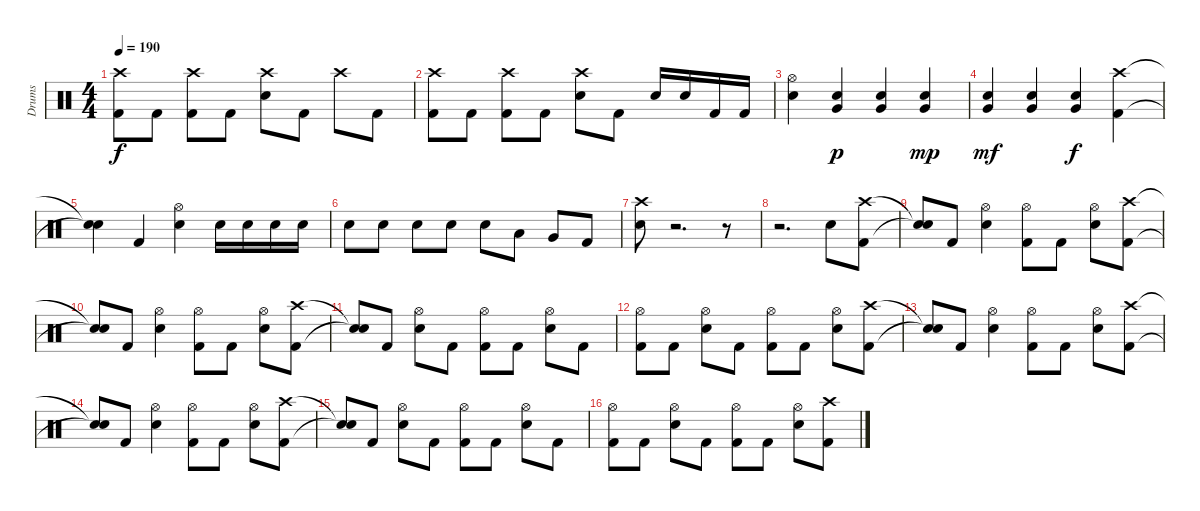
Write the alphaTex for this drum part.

\track ("Drums" "Drums") {instrument percussion}
\staff {score}
\articulation defaults
\ts (4 4)
\tempo 190
\clef neutral
\ks c
("Crash high (hit)" "Kick (hit) 2").8{dy f} "Kick (hit) 2".8 ("Crash high (hit)" "Kick (hit) 2").8 "Kick (hit) 2".8 ("Crash high (hit)" "Electric Snare (hit)").8 "Kick (hit) 2".8 "Crash high (hit)".8 "Kick (hit) 2".8 |
("Crash high (hit)" "Kick (hit) 2").8 "Kick (hit) 2".8 ("Crash high (hit)" "Kick (hit) 2").8 "Kick (hit) 2".8 ("Crash high (hit)" "Electric Snare (hit)").8 "Kick (hit) 2".8 "Electric Snare (hit)".16 "Electric Snare (hit)".16 "Kick (hit) 2".16 "Kick (hit) 2".16 |
("Hi-Hat (open)" "Electric Snare (hit)").4 ("Very Low Tom (hit)" "Electric Snare (hit)").4{dy p} ("Very Low Tom (hit)" "Electric Snare (hit)").4 ("Very Low Tom (hit)" "Electric Snare (hit)").4{dy mp} |
("Very Low Tom (hit)" "Electric Snare (hit)").4{dy mf} ("Very Low Tom (hit)" "Electric Snare (hit)").4 ("Very Low Tom (hit)" "Electric Snare (hit)").4{dy f} ("Crash high (hit)" "Kick (hit) 2").4 |
("Snare (hit)"{t} "Snare (hit)"{t}).4 "Kick (hit) 2".4 ("Hi-Hat (open)" "Electric Snare (hit)").4 "Electric Snare (hit)".16 "Electric Snare (hit)".16 "Electric Snare (hit)".16 "Electric Snare (hit)".16 |
"Electric Snare (hit)".8 "Electric Snare (hit)".8 "Electric Snare (hit)".8 "Electric Snare (hit)".8 "Electric Snare (hit)".8 "Low Tom (hit)".8 "Very Low Tom (hit)".8 "Kick (hit) 2".8 |
("Crash high (hit)" "Electric Snare (hit)").8 r.2{d volume 0} r.8 |
r.2{d} "Electric Snare (hit)".8{volume 16} ("Crash high (hit)" "Kick (hit) 2").8 |
("Snare (hit)"{t} "Snare (hit)"{t}).8 "Kick (hit) 2".8 ("Hi-Hat (open)" "Electric Snare (hit)").4 ("Hi-Hat (open)" "Kick (hit) 2").8 "Kick (hit) 2".8 ("Hi-Hat (open)" "Electric Snare (hit)").8 ("Crash high (hit)" "Kick (hit) 2").8 |
("Snare (hit)"{t} "Snare (hit)"{t}).8 "Kick (hit) 2".8 ("Hi-Hat (open)" "Electric Snare (hit)").4 ("Hi-Hat (open)" "Kick (hit) 2").8 "Kick (hit) 2".8 ("Hi-Hat (open)" "Electric Snare (hit)").8 ("Crash high (hit)" "Kick (hit) 2").8 |
("Snare (hit)"{t} "Snare (hit)"{t}).8 "Kick (hit) 2".8 ("Hi-Hat (open)" "Electric Snare (hit)").8 "Kick (hit) 2".8 ("Hi-Hat (open)" "Kick (hit) 2").8 "Kick (hit) 2".8 ("Hi-Hat (open)" "Electric Snare (hit)").8 "Kick (hit) 2".8 |
("Hi-Hat (open)" "Kick (hit) 2").8 "Kick (hit) 2".8 ("Hi-Hat (open)" "Electric Snare (hit)").8 "Kick (hit) 2".8 ("Hi-Hat (open)" "Kick (hit) 2").8 "Kick (hit) 2".8 ("Hi-Hat (open)" "Electric Snare (hit)").8 ("Crash high (hit)" "Kick (hit) 2").8 |
("Snare (hit)"{t} "Snare (hit)"{t}).8 "Kick (hit) 2".8 ("Hi-Hat (open)" "Electric Snare (hit)").4 ("Hi-Hat (open)" "Kick (hit) 2").8 "Kick (hit) 2".8 ("Hi-Hat (open)" "Electric Snare (hit)").8 ("Crash high (hit)" "Kick (hit) 2").8 |
("Snare (hit)"{t} "Snare (hit)"{t}).8 "Kick (hit) 2".8 ("Hi-Hat (open)" "Electric Snare (hit)").4 ("Hi-Hat (open)" "Kick (hit) 2").8 "Kick (hit) 2".8 ("Hi-Hat (open)" "Electric Snare (hit)").8 ("Crash high (hit)" "Kick (hit) 2").8 |
("Snare (hit)"{t} "Snare (hit)"{t}).8 "Kick (hit) 2".8 ("Hi-Hat (open)" "Electric Snare (hit)").8 "Kick (hit) 2".8 ("Hi-Hat (open)" "Kick (hit) 2").8 "Kick (hit) 2".8 ("Hi-Hat (open)" "Electric Snare (hit)").8 "Kick (hit) 2".8 |
("Hi-Hat (open)" "Kick (hit) 2").8 "Kick (hit) 2".8 ("Hi-Hat (open)" "Electric Snare (hit)").8 "Kick (hit) 2".8 ("Hi-Hat (open)" "Kick (hit) 2").8 "Kick (hit) 2".8 ("Hi-Hat (open)" "Electric Snare (hit)").8 ("Crash high (hit)" "Kick (hit) 2").8
